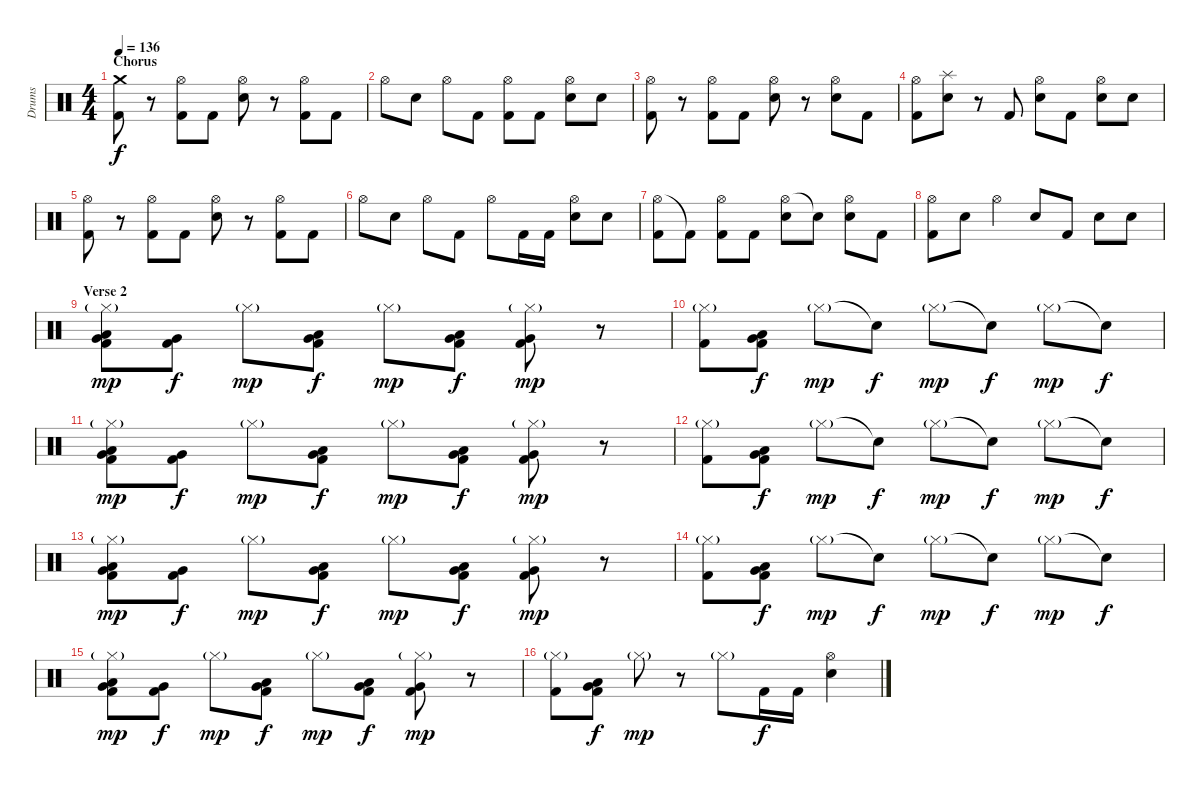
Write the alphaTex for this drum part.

\track ("Drums" "Drums") {instrument percussion}
\staff {score}
\articulation defaults
\ts (4 4)
\section ("" "Chorus")
\tempo 136
\clef neutral
\ks c
("Crash medium (hit)" "Kick (hit) 2").8{dy f} r.8 ("Hi-Hat (open)" "Kick (hit) 2").8 "Kick (hit) 2".8 ("Hi-Hat (open)" "Electric Snare (hit)").8 r.8 ("Hi-Hat (open)" "Kick (hit) 2").8 "Kick (hit) 2".8 |
"Hi-Hat (open)".8 "Electric Snare (hit)".8 "Hi-Hat (open)".8 "Kick (hit) 2".8 ("Hi-Hat (open)" "Kick (hit) 2").8 "Kick (hit) 2".8 ("Hi-Hat (open)" "Electric Snare (hit)").8 "Electric Snare (hit)".8 |
("Hi-Hat (open)" "Kick (hit) 2").8 r.8 ("Hi-Hat (open)" "Kick (hit) 2").8 "Kick (hit) 2".8 ("Hi-Hat (open)" "Electric Snare (hit)").8 r.8 ("Hi-Hat (open)" "Electric Snare (hit)").8 "Kick (hit) 2".8 |
("Hi-Hat (open)" "Kick (hit) 2").8 ("Splash (hit)" "Electric Snare (hit)").8 r.8 "Kick (hit) 2".8 ("Hi-Hat (open)" "Electric Snare (hit)").8 "Kick (hit) 2".8 ("Hi-Hat (open)" "Electric Snare (hit)").8 "Electric Snare (hit)".8 |
("Hi-Hat (open)" "Kick (hit) 2").8 r.8 ("Hi-Hat (open)" "Kick (hit) 2").8 "Kick (hit) 2".8 ("Hi-Hat (open)" "Electric Snare (hit)").8 r.8 ("Hi-Hat (open)" "Kick (hit) 2").8 "Kick (hit) 2".8 |
"Hi-Hat (open)".8 "Electric Snare (hit)".8 "Hi-Hat (open)".8 "Kick (hit) 2".8 "Hi-Hat (open)".8 "Kick (hit) 2".16 "Kick (hit) 2".16 ("Hi-Hat (open)" "Electric Snare (hit)").8 "Electric Snare (hit)".8 |
("Hi-Hat (open)" "Kick (hit) 2").8 "Kick (hit) 2"{t}.8 ("Hi-Hat (open)" "Kick (hit) 2").8 "Kick (hit) 2".8 ("Hi-Hat (open)" "Electric Snare (hit)").8 "Snare (hit)"{t}.8 ("Hi-Hat (open)" "Electric Snare (hit)").8 "Kick (hit) 2".8 |
("Hi-Hat (open)" "Kick (hit) 2").8 "Electric Snare (hit)".8 "Hi-Hat (open)".4 "Electric Snare (hit)".8 "Kick (hit) 2".8 "Electric Snare (hit)".8 "Electric Snare (hit)".8 |
\section ("" "Verse 2")
("Kick (hit) 2" "Low Tom (hit)" "Very Low Tom (hit)" "Hi-Hat (closed)"{g}).8{dy mp} ("Kick (hit) 2" "Very Low Tom (hit)").8{dy f} "Hi-Hat (closed)"{g}.8{dy mp} ("Kick (hit) 2" "Low Tom (hit)" "Very Low Tom (hit)").8{dy f} "Hi-Hat (closed)"{g}.8{dy mp} ("Kick (hit) 2" "Low Tom (hit)" "Very Low Tom (hit)").8{dy f} ("Kick (hit) 2" "Very Low Tom (hit)" "Hi-Hat (closed)"{g}).8{dy mp} r.8 |
("Kick (hit) 2" "Hi-Hat (closed)"{g}).8 ("Kick (hit) 2" "Low Tom (hit)" "Very Low Tom (hit)").8{dy f} "Hi-Hat (closed)"{g}.8{dy mp} "Snare (hit)"{t}.8{dy f} "Hi-Hat (closed)"{g}.8{dy mp} "Snare (hit)"{t}.8{dy f} "Hi-Hat (closed)"{g}.8{dy mp} "Snare (hit)"{t}.8{dy f} |
("Kick (hit) 2" "Low Tom (hit)" "Very Low Tom (hit)" "Hi-Hat (closed)"{g}).8{dy mp} ("Kick (hit) 2" "Very Low Tom (hit)").8{dy f} "Hi-Hat (closed)"{g}.8{dy mp} ("Kick (hit) 2" "Low Tom (hit)" "Very Low Tom (hit)").8{dy f} "Hi-Hat (closed)"{g}.8{dy mp} ("Kick (hit) 2" "Low Tom (hit)" "Very Low Tom (hit)").8{dy f} ("Kick (hit) 2" "Very Low Tom (hit)" "Hi-Hat (closed)"{g}).8{dy mp} r.8 |
("Kick (hit) 2" "Hi-Hat (closed)"{g}).8 ("Kick (hit) 2" "Low Tom (hit)" "Very Low Tom (hit)").8{dy f} "Hi-Hat (closed)"{g}.8{dy mp} "Snare (hit)"{t}.8{dy f} "Hi-Hat (closed)"{g}.8{dy mp} "Snare (hit)"{t}.8{dy f} "Hi-Hat (closed)"{g}.8{dy mp} "Snare (hit)"{t}.8{dy f} |
("Kick (hit) 2" "Low Tom (hit)" "Very Low Tom (hit)" "Hi-Hat (closed)"{g}).8{dy mp} ("Kick (hit) 2" "Very Low Tom (hit)").8{dy f} "Hi-Hat (closed)"{g}.8{dy mp} ("Kick (hit) 2" "Low Tom (hit)" "Very Low Tom (hit)").8{dy f} "Hi-Hat (closed)"{g}.8{dy mp} ("Kick (hit) 2" "Low Tom (hit)" "Very Low Tom (hit)").8{dy f} ("Kick (hit) 2" "Very Low Tom (hit)" "Hi-Hat (closed)"{g}).8{dy mp} r.8 |
("Kick (hit) 2" "Hi-Hat (closed)"{g}).8 ("Kick (hit) 2" "Low Tom (hit)" "Very Low Tom (hit)").8{dy f} "Hi-Hat (closed)"{g}.8{dy mp} "Snare (hit)"{t}.8{dy f} "Hi-Hat (closed)"{g}.8{dy mp} "Snare (hit)"{t}.8{dy f} "Hi-Hat (closed)"{g}.8{dy mp} "Snare (hit)"{t}.8{dy f} |
("Kick (hit) 2" "Low Tom (hit)" "Very Low Tom (hit)" "Hi-Hat (closed)"{g}).8{dy mp} ("Kick (hit) 2" "Very Low Tom (hit)").8{dy f} "Hi-Hat (closed)"{g}.8{dy mp} ("Kick (hit) 2" "Low Tom (hit)" "Very Low Tom (hit)").8{dy f} "Hi-Hat (closed)"{g}.8{dy mp} ("Kick (hit) 2" "Low Tom (hit)" "Very Low Tom (hit)").8{dy f} ("Kick (hit) 2" "Very Low Tom (hit)" "Hi-Hat (closed)"{g}).8{dy mp} r.8 |
("Kick (hit) 2" "Hi-Hat (closed)"{g}).8 ("Kick (hit) 2" "Low Tom (hit)" "Very Low Tom (hit)").8{dy f} "Hi-Hat (closed)"{g}.8{dy mp} r.8 "Hi-Hat (closed)"{g}.8 "Kick (hit) 2".16{dy f} "Kick (hit) 2".16 ("Electric Snare (hit)" "Hi-Hat (open)").4
